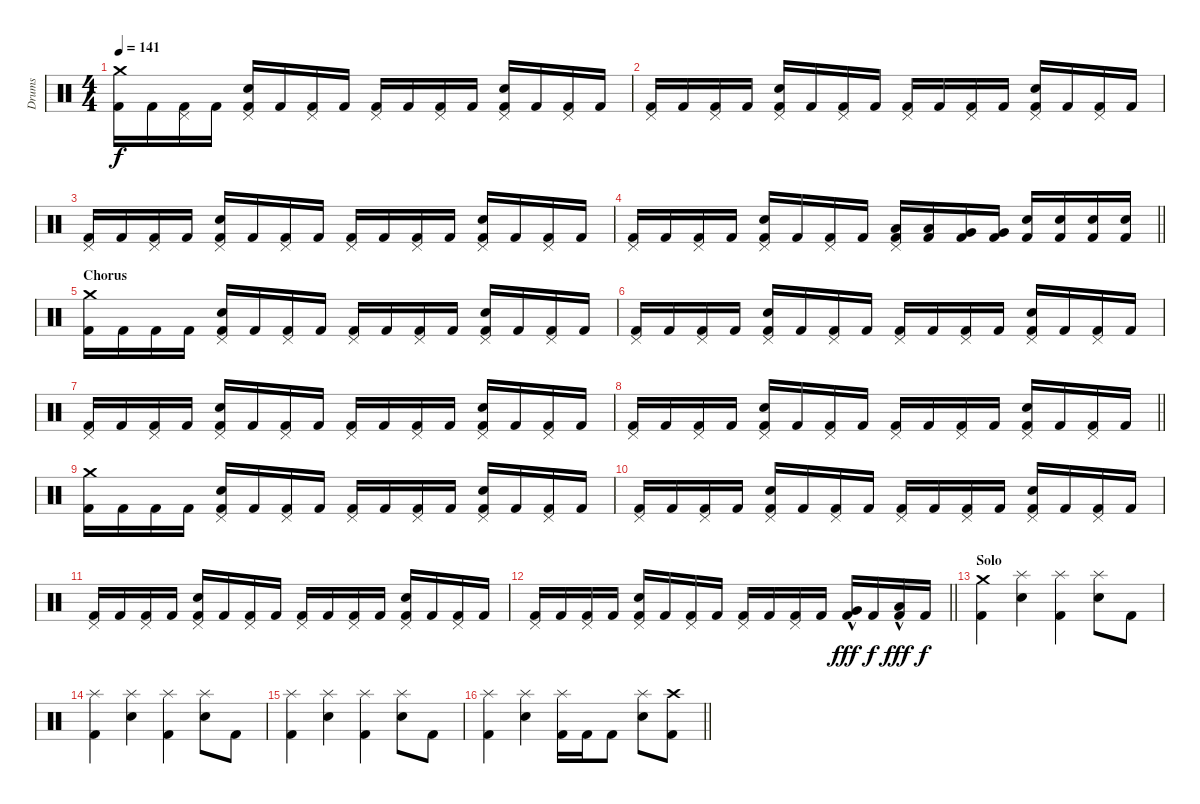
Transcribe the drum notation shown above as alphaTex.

\track ("Drums" "Drums") {instrument percussion}
\staff {score}
\articulation defaults
\ts (4 4)
\section ("" "")
\tempo 141
\clef neutral
\ks c
("Kick (hit) 2" "Crash medium (hit)").16{dy f} "Kick (hit) 2".16 ("Kick (hit) 2" "Pedal Hi-Hat (hit)").16 "Kick (hit) 2".16 ("Kick (hit) 2" "Snare (hit) 2" "Pedal Hi-Hat (hit)").16 "Kick (hit) 2".16 ("Kick (hit) 2" "Pedal Hi-Hat (hit)").16 "Kick (hit) 2".16 ("Kick (hit) 2" "Pedal Hi-Hat (hit)").16 "Kick (hit) 2".16 ("Kick (hit) 2" "Pedal Hi-Hat (hit)").16 "Kick (hit) 2".16 ("Kick (hit) 2" "Snare (hit) 2" "Pedal Hi-Hat (hit)").16 "Kick (hit) 2".16 ("Kick (hit) 2" "Pedal Hi-Hat (hit)").16 "Kick (hit) 2".16 |
("Kick (hit) 2" "Pedal Hi-Hat (hit)").16 "Kick (hit) 2".16 ("Kick (hit) 2" "Pedal Hi-Hat (hit)").16 "Kick (hit) 2".16 ("Kick (hit) 2" "Snare (hit) 2" "Pedal Hi-Hat (hit)").16 "Kick (hit) 2".16 ("Kick (hit) 2" "Pedal Hi-Hat (hit)").16 "Kick (hit) 2".16 ("Kick (hit) 2" "Pedal Hi-Hat (hit)").16 "Kick (hit) 2".16 ("Kick (hit) 2" "Pedal Hi-Hat (hit)").16 "Kick (hit) 2".16 ("Kick (hit) 2" "Snare (hit) 2" "Pedal Hi-Hat (hit)").16 "Kick (hit) 2".16 ("Kick (hit) 2" "Pedal Hi-Hat (hit)").16 "Kick (hit) 2".16 |
("Kick (hit) 2" "Pedal Hi-Hat (hit)").16 "Kick (hit) 2".16 ("Kick (hit) 2" "Pedal Hi-Hat (hit)").16 "Kick (hit) 2".16 ("Kick (hit) 2" "Snare (hit) 2" "Pedal Hi-Hat (hit)").16 "Kick (hit) 2".16 ("Kick (hit) 2" "Pedal Hi-Hat (hit)").16 "Kick (hit) 2".16 ("Kick (hit) 2" "Pedal Hi-Hat (hit)").16 "Kick (hit) 2".16 ("Kick (hit) 2" "Pedal Hi-Hat (hit)").16 "Kick (hit) 2".16 ("Kick (hit) 2" "Snare (hit) 2" "Pedal Hi-Hat (hit)").16 "Kick (hit) 2".16 ("Kick (hit) 2" "Pedal Hi-Hat (hit)").16 "Kick (hit) 2".16 |
\barLineRight lightlight
("Kick (hit) 2" "Pedal Hi-Hat (hit)").16 "Kick (hit) 2".16 ("Kick (hit) 2" "Pedal Hi-Hat (hit)").16 "Kick (hit) 2".16 ("Kick (hit) 2" "Snare (hit) 2" "Pedal Hi-Hat (hit)").16 "Kick (hit) 2".16 ("Kick (hit) 2" "Pedal Hi-Hat (hit)").16 "Kick (hit) 2".16 ("Kick (hit) 2" "Low Tom (hit)" "Pedal Hi-Hat (hit)").16 ("Kick (hit) 2" "Low Tom (hit)").16 ("Kick (hit) 2" "Very Low Tom (hit)").16 ("Kick (hit) 2" "Very Low Tom (hit)").16 ("Kick (hit) 2" "Snare (hit) 2").16 ("Kick (hit) 2" "Snare (hit) 2").16 ("Kick (hit) 2" "Snare (hit) 2").16 ("Kick (hit) 2" "Snare (hit) 2").16 |
\section ("" "Chorus")
("Kick (hit) 2" "Crash medium (hit)").16 "Kick (hit) 2".16 "Kick (hit) 2".16 "Kick (hit) 2".16 ("Kick (hit) 2" "Snare (hit) 2" "Pedal Hi-Hat (hit)").16 "Kick (hit) 2".16 ("Kick (hit) 2" "Pedal Hi-Hat (hit)").16 "Kick (hit) 2".16 ("Kick (hit) 2" "Pedal Hi-Hat (hit)").16 "Kick (hit) 2".16 ("Kick (hit) 2" "Pedal Hi-Hat (hit)").16 "Kick (hit) 2".16 ("Kick (hit) 2" "Snare (hit) 2" "Pedal Hi-Hat (hit)").16 "Kick (hit) 2".16 ("Kick (hit) 2" "Pedal Hi-Hat (hit)").16 "Kick (hit) 2".16 |
("Kick (hit) 2" "Pedal Hi-Hat (hit)").16 "Kick (hit) 2".16 ("Kick (hit) 2" "Pedal Hi-Hat (hit)").16 "Kick (hit) 2".16 ("Kick (hit) 2" "Snare (hit) 2" "Pedal Hi-Hat (hit)").16 "Kick (hit) 2".16 ("Kick (hit) 2" "Pedal Hi-Hat (hit)").16 "Kick (hit) 2".16 ("Kick (hit) 2" "Pedal Hi-Hat (hit)").16 "Kick (hit) 2".16 ("Kick (hit) 2" "Pedal Hi-Hat (hit)").16 "Kick (hit) 2".16 ("Kick (hit) 2" "Snare (hit) 2" "Pedal Hi-Hat (hit)").16 "Kick (hit) 2".16 ("Kick (hit) 2" "Pedal Hi-Hat (hit)").16 "Kick (hit) 2".16 |
("Kick (hit) 2" "Pedal Hi-Hat (hit)").16 "Kick (hit) 2".16 ("Kick (hit) 2" "Pedal Hi-Hat (hit)").16 "Kick (hit) 2".16 ("Kick (hit) 2" "Snare (hit) 2" "Pedal Hi-Hat (hit)").16 "Kick (hit) 2".16 ("Kick (hit) 2" "Pedal Hi-Hat (hit)").16 "Kick (hit) 2".16 ("Kick (hit) 2" "Pedal Hi-Hat (hit)").16 "Kick (hit) 2".16 ("Kick (hit) 2" "Pedal Hi-Hat (hit)").16 "Kick (hit) 2".16 ("Kick (hit) 2" "Snare (hit) 2" "Pedal Hi-Hat (hit)").16 "Kick (hit) 2".16 ("Kick (hit) 2" "Pedal Hi-Hat (hit)").16 "Kick (hit) 2".16 |
\barLineRight lightlight
("Kick (hit) 2" "Pedal Hi-Hat (hit)").16 "Kick (hit) 2".16 ("Kick (hit) 2" "Pedal Hi-Hat (hit)").16 "Kick (hit) 2".16 ("Kick (hit) 2" "Snare (hit) 2" "Pedal Hi-Hat (hit)").16 "Kick (hit) 2".16 ("Kick (hit) 2" "Pedal Hi-Hat (hit)").16 "Kick (hit) 2".16 ("Kick (hit) 2" "Pedal Hi-Hat (hit)").16 "Kick (hit) 2".16 ("Kick (hit) 2" "Pedal Hi-Hat (hit)").16 "Kick (hit) 2".16 ("Kick (hit) 2" "Snare (hit) 2" "Pedal Hi-Hat (hit)").16 "Kick (hit) 2".16 ("Kick (hit) 2" "Pedal Hi-Hat (hit)").16 "Kick (hit) 2".16 |
\section ("" "")
("Kick (hit) 2" "Crash medium (hit)").16 "Kick (hit) 2".16 "Kick (hit) 2".16 "Kick (hit) 2".16 ("Kick (hit) 2" "Snare (hit) 2" "Pedal Hi-Hat (hit)").16 "Kick (hit) 2".16 ("Kick (hit) 2" "Pedal Hi-Hat (hit)").16 "Kick (hit) 2".16 ("Kick (hit) 2" "Pedal Hi-Hat (hit)").16 "Kick (hit) 2".16 ("Kick (hit) 2" "Pedal Hi-Hat (hit)").16 "Kick (hit) 2".16 ("Kick (hit) 2" "Snare (hit) 2" "Pedal Hi-Hat (hit)").16 "Kick (hit) 2".16 ("Kick (hit) 2" "Pedal Hi-Hat (hit)").16 "Kick (hit) 2".16 |
("Kick (hit) 2" "Pedal Hi-Hat (hit)").16 "Kick (hit) 2".16 ("Kick (hit) 2" "Pedal Hi-Hat (hit)").16 "Kick (hit) 2".16 ("Kick (hit) 2" "Snare (hit) 2" "Pedal Hi-Hat (hit)").16 "Kick (hit) 2".16 ("Kick (hit) 2" "Pedal Hi-Hat (hit)").16 "Kick (hit) 2".16 ("Kick (hit) 2" "Pedal Hi-Hat (hit)").16 "Kick (hit) 2".16 ("Kick (hit) 2" "Pedal Hi-Hat (hit)").16 "Kick (hit) 2".16 ("Kick (hit) 2" "Snare (hit) 2" "Pedal Hi-Hat (hit)").16 "Kick (hit) 2".16 ("Kick (hit) 2" "Pedal Hi-Hat (hit)").16 "Kick (hit) 2".16 |
("Kick (hit) 2" "Pedal Hi-Hat (hit)").16 "Kick (hit) 2".16 ("Kick (hit) 2" "Pedal Hi-Hat (hit)").16 "Kick (hit) 2".16 ("Kick (hit) 2" "Snare (hit) 2" "Pedal Hi-Hat (hit)").16 "Kick (hit) 2".16 ("Kick (hit) 2" "Pedal Hi-Hat (hit)").16 "Kick (hit) 2".16 ("Kick (hit) 2" "Pedal Hi-Hat (hit)").16 "Kick (hit) 2".16 ("Kick (hit) 2" "Pedal Hi-Hat (hit)").16 "Kick (hit) 2".16 ("Kick (hit) 2" "Snare (hit) 2" "Pedal Hi-Hat (hit)").16 "Kick (hit) 2".16 ("Kick (hit) 2" "Pedal Hi-Hat (hit)").16 "Kick (hit) 2".16 |
\barLineRight lightlight
("Kick (hit) 2" "Pedal Hi-Hat (hit)").16 "Kick (hit) 2".16 ("Kick (hit) 2" "Pedal Hi-Hat (hit)").16 "Kick (hit) 2".16 ("Kick (hit) 2" "Snare (hit) 2" "Pedal Hi-Hat (hit)").16 "Kick (hit) 2".16 ("Kick (hit) 2" "Pedal Hi-Hat (hit)").16 "Kick (hit) 2".16 ("Kick (hit) 2" "Pedal Hi-Hat (hit)").16 "Kick (hit) 2".16 ("Kick (hit) 2" "Pedal Hi-Hat (hit)").16 "Kick (hit) 2".16 ("Kick (hit) 2" "Very Low Tom (hit)"{hac}).16{dy fff} "Kick (hit) 2".16{dy f} ("Kick (hit) 2" "Low Floor Tom (hit)"{hac}).16{dy fff} "Kick (hit) 2".16{dy f} |
\section ("" "Solo")
("Kick (hit) 2" "Crash medium (hit)").4 ("Snare (hit) 2" "Splash (hit)").4 ("Kick (hit) 2" "Splash (hit)").4 ("Snare (hit) 2" "Splash (hit)").8 "Kick (hit) 2".8 |
("Kick (hit) 2" "Splash (hit)").4 ("Snare (hit) 2" "Splash (hit)").4 ("Kick (hit) 2" "Splash (hit)").4 ("Snare (hit) 2" "Splash (hit)").8 "Kick (hit) 2".8 |
("Kick (hit) 2" "Splash (hit)").4 ("Snare (hit) 2" "Splash (hit)").4 ("Kick (hit) 2" "Splash (hit)").4 ("Snare (hit) 2" "Splash (hit)").8 "Kick (hit) 2".8 |
\barLineRight lightlight
("Kick (hit) 2" "Splash (hit)").4 ("Snare (hit) 2" "Splash (hit)").4 ("Kick (hit) 2" "Splash (hit)").16 "Kick (hit) 2".16 "Kick (hit) 2".8 ("Snare (hit) 2" "Splash (hit)").8 ("Kick (hit) 2" "Crash high (hit)").8
